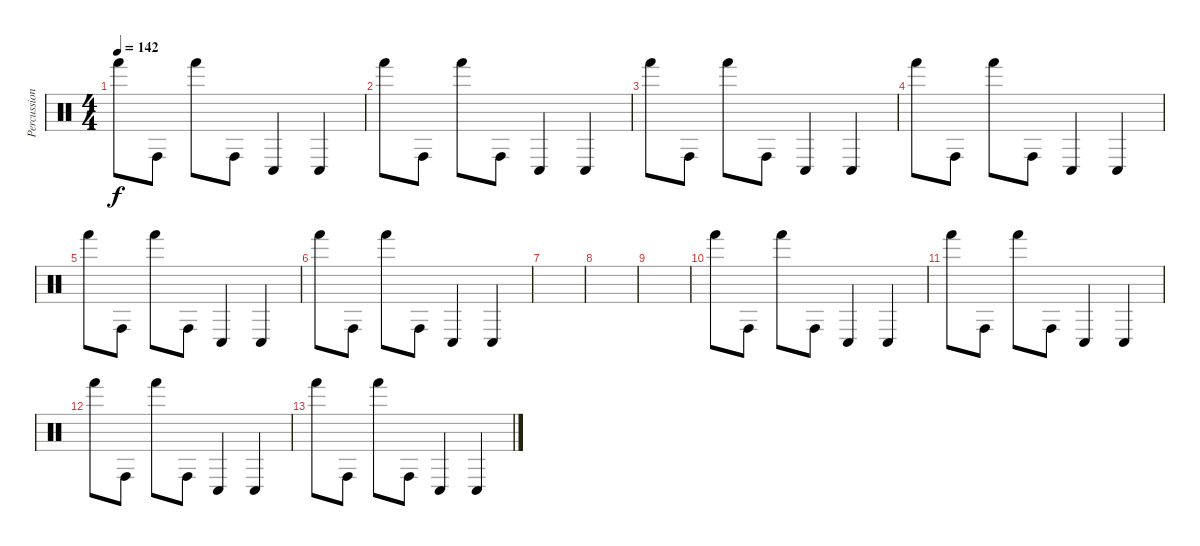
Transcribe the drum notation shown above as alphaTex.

\track ("Percussions" "Percussion") {instrument percussion}
\staff {score}
\articulation defaults
\ts (4 4)
\tempo 142
\clef neutral
\ks c "Hand (hit)".8{dy f} "Conga high (hit)".8 "Hand (hit)".8 "Conga high (hit)".8 "Conga low (hit)".4 "Conga low (hit)".4
|
"Hand (hit)".8 "Conga high (hit)".8 "Hand (hit)".8 "Conga high (hit)".8 "Conga low (hit)".4 "Conga low (hit)".4 |
"Hand (hit)".8 "Conga high (hit)".8 "Hand (hit)".8 "Conga high (hit)".8 "Conga low (hit)".4 "Conga low (hit)".4 |
"Hand (hit)".8 "Conga high (hit)".8 "Hand (hit)".8 "Conga high (hit)".8 "Conga low (hit)".4 "Conga low (hit)".4 |
"Hand (hit)".8 "Conga high (hit)".8 "Hand (hit)".8 "Conga high (hit)".8 "Conga low (hit)".4 "Conga low (hit)".4 |
"Hand (hit)".8 "Conga high (hit)".8 "Hand (hit)".8 "Conga high (hit)".8 "Conga low (hit)".4 "Conga low (hit)".4 |
|
|
|
"Hand (hit)".8 "Conga high (hit)".8 "Hand (hit)".8 "Conga high (hit)".8 "Conga low (hit)".4 "Conga low (hit)".4 |
"Hand (hit)".8 "Conga high (hit)".8 "Hand (hit)".8 "Conga high (hit)".8 "Conga low (hit)".4 "Conga low (hit)".4 |
"Hand (hit)".8 "Conga high (hit)".8 "Hand (hit)".8 "Conga high (hit)".8 "Conga low (hit)".4 "Conga low (hit)".4 |
"Hand (hit)".8 "Conga high (hit)".8 "Hand (hit)".8 "Conga high (hit)".8 "Conga low (hit)".4 "Conga low (hit)".4
